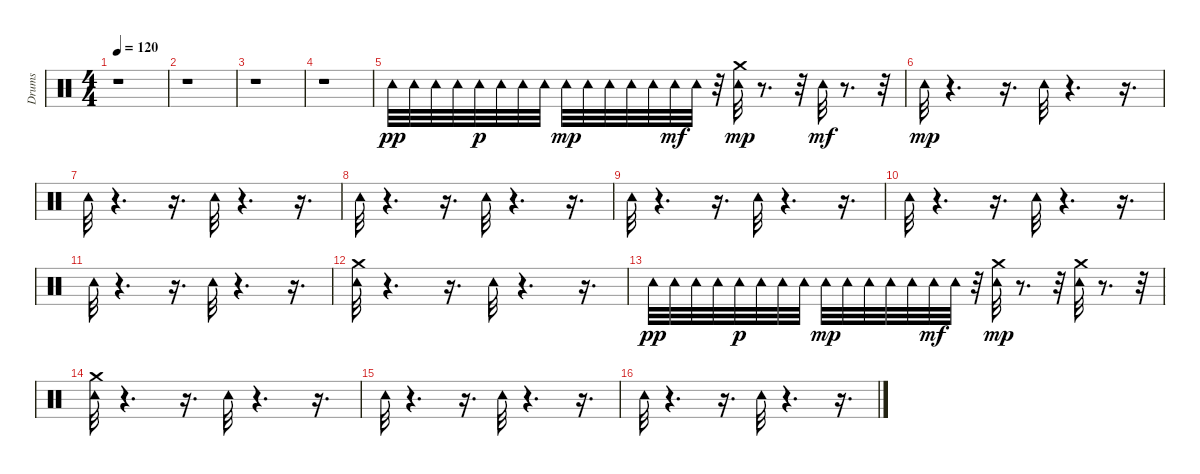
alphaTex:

\track ("Drums" "Drums") {instrument percussion}
\staff {score}
\articulation defaults
\ts (4 4)
\tempo 120
\clef neutral
\ks c
r.1{dy mf} |
r.1 |
r.1 |
r.1 |
"Tambourine (hit)".32{dy pp} "Tambourine (hit)".32 "Tambourine (hit)".32 "Tambourine (hit)".32 "Tambourine (hit)".32{dy p} "Tambourine (hit)".32 "Tambourine (hit)".32 "Tambourine (hit)".32 "Tambourine (hit)".32{dy mp} "Tambourine (hit)".32 "Tambourine (hit)".32 "Tambourine (hit)".32 "Tambourine (hit)".32 "Tambourine (hit)".32{dy mf} "Tambourine (hit)".32 r.32 ("Tambourine (hit)" "Crash medium (hit)").32{dy mp} r.8{d} r.32 "Tambourine (hit)".32{dy mf} r.8{d} r.32 |
"Tambourine (hit)".32{dy mp} r.4{d} r.16{d} "Tambourine (hit)".32 r.4{d} r.16{d} |
"Tambourine (hit)".32 r.4{d} r.16{d} "Tambourine (hit)".32 r.4{d} r.16{d} |
"Tambourine (hit)".32 r.4{d} r.16{d} "Tambourine (hit)".32 r.4{d} r.16{d} |
"Tambourine (hit)".32 r.4{d} r.16{d} "Tambourine (hit)".32 r.4{d} r.16{d} |
"Tambourine (hit)".32 r.4{d} r.16{d} "Tambourine (hit)".32 r.4{d} r.16{d} |
"Tambourine (hit)".32 r.4{d} r.16{d} "Tambourine (hit)".32 r.4{d} r.16{d} |
("Crash medium (hit)" "Tambourine (hit)").32 r.4{d} r.16{d} "Tambourine (hit)".32 r.4{d} r.16{d} |
"Tambourine (hit)".32{dy pp} "Tambourine (hit)".32 "Tambourine (hit)".32 "Tambourine (hit)".32 "Tambourine (hit)".32{dy p} "Tambourine (hit)".32 "Tambourine (hit)".32 "Tambourine (hit)".32 "Tambourine (hit)".32{dy mp} "Tambourine (hit)".32 "Tambourine (hit)".32 "Tambourine (hit)".32 "Tambourine (hit)".32 "Tambourine (hit)".32{dy mf} "Tambourine (hit)".32 r.32 ("Crash medium (hit)" "Tambourine (hit)").32{dy mp} r.8{d} r.32 ("Tambourine (hit)" "Crash medium (hit)").32 r.8{d} r.32 |
("Crash medium (hit)" "Tambourine (hit)").32 r.4{d} r.16{d} "Tambourine (hit)".32 r.4{d} r.16{d} |
"Tambourine (hit)".32 r.4{d} r.16{d} "Tambourine (hit)".32 r.4{d} r.16{d} |
"Tambourine (hit)".32 r.4{d} r.16{d} "Tambourine (hit)".32 r.4{d} r.16{d}
